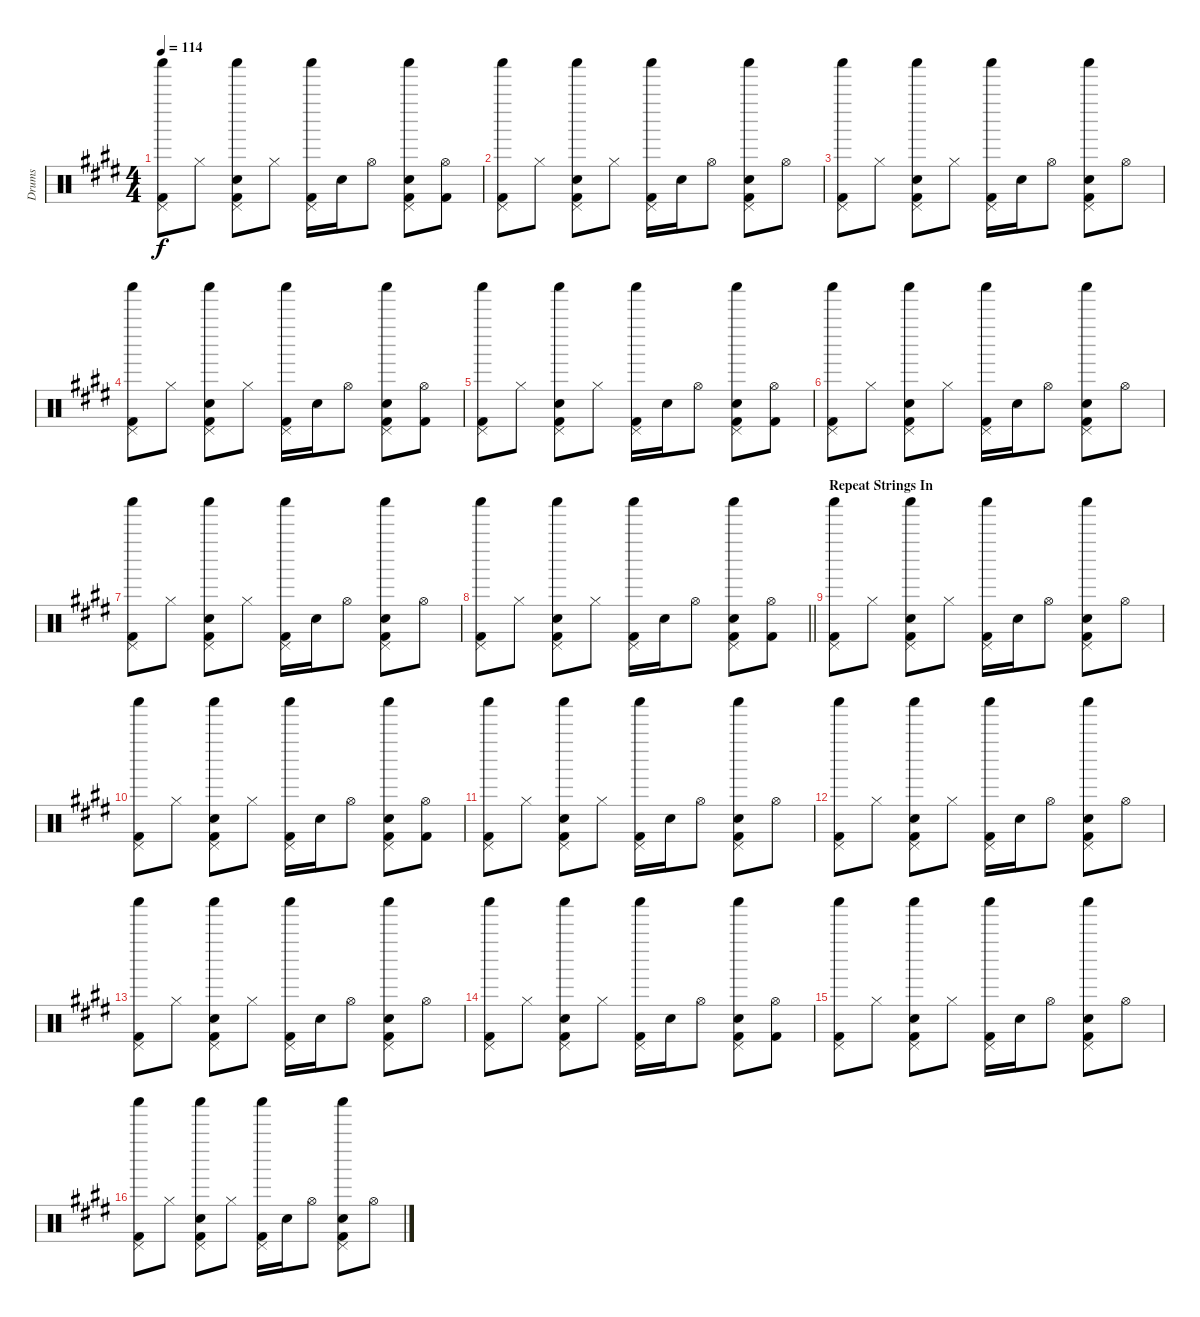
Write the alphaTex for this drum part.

\track ("Drums" "Drums") {instrument percussion}
\staff {score}
\articulation defaults
\ts (4 4)
\tempo 114
\clef neutral
\ks e
("Pedal Hi-Hat (hit)" "Shaker (hit)" "Kick (hit) 2").8{dy f} "Hi-Hat (closed)".8 ("Pedal Hi-Hat (hit)" "Shaker (hit)" "Electric Snare (hit)" "Kick (hit) 2").8 "Hi-Hat (closed)".8 ("Pedal Hi-Hat (hit)" "Shaker (hit)" "Kick (hit) 2").16 "Electric Snare (hit)".16 "Hi-Hat (open)".8 ("Pedal Hi-Hat (hit)" "Shaker (hit)" "Electric Snare (hit)" "Kick (hit) 2").8 ("Hi-Hat (open)" "Kick (hit) 2").8 |
("Pedal Hi-Hat (hit)" "Shaker (hit)" "Kick (hit) 2").8 "Hi-Hat (closed)".8 ("Pedal Hi-Hat (hit)" "Shaker (hit)" "Electric Snare (hit)" "Kick (hit) 2").8 "Hi-Hat (closed)".8 ("Pedal Hi-Hat (hit)" "Shaker (hit)" "Kick (hit) 2").16 "Electric Snare (hit)".16 "Hi-Hat (open)".8 ("Pedal Hi-Hat (hit)" "Shaker (hit)" "Electric Snare (hit)" "Kick (hit) 2").8 "Hi-Hat (open)".8 |
("Pedal Hi-Hat (hit)" "Shaker (hit)" "Kick (hit) 2").8 "Hi-Hat (closed)".8 ("Pedal Hi-Hat (hit)" "Shaker (hit)" "Electric Snare (hit)" "Kick (hit) 2").8 "Hi-Hat (closed)".8 ("Pedal Hi-Hat (hit)" "Shaker (hit)" "Kick (hit) 2").16 "Electric Snare (hit)".16 "Hi-Hat (open)".8 ("Pedal Hi-Hat (hit)" "Shaker (hit)" "Electric Snare (hit)" "Kick (hit) 2").8 "Hi-Hat (open)".8 |
("Pedal Hi-Hat (hit)" "Shaker (hit)" "Kick (hit) 2").8 "Hi-Hat (closed)".8 ("Pedal Hi-Hat (hit)" "Shaker (hit)" "Electric Snare (hit)" "Kick (hit) 2").8 "Hi-Hat (closed)".8 ("Pedal Hi-Hat (hit)" "Shaker (hit)" "Kick (hit) 2").16 "Electric Snare (hit)".16 "Hi-Hat (open)".8 ("Pedal Hi-Hat (hit)" "Shaker (hit)" "Electric Snare (hit)" "Kick (hit) 2").8 ("Hi-Hat (open)" "Kick (hit) 2").8 |
("Pedal Hi-Hat (hit)" "Shaker (hit)" "Kick (hit) 2").8 "Hi-Hat (closed)".8 ("Pedal Hi-Hat (hit)" "Shaker (hit)" "Electric Snare (hit)" "Kick (hit) 2").8 "Hi-Hat (closed)".8 ("Pedal Hi-Hat (hit)" "Shaker (hit)" "Kick (hit) 2").16 "Electric Snare (hit)".16 "Hi-Hat (open)".8 ("Pedal Hi-Hat (hit)" "Shaker (hit)" "Electric Snare (hit)" "Kick (hit) 2").8 ("Hi-Hat (open)" "Kick (hit) 2").8 |
("Pedal Hi-Hat (hit)" "Shaker (hit)" "Kick (hit) 2").8 "Hi-Hat (closed)".8 ("Pedal Hi-Hat (hit)" "Shaker (hit)" "Electric Snare (hit)" "Kick (hit) 2").8 "Hi-Hat (closed)".8 ("Pedal Hi-Hat (hit)" "Shaker (hit)" "Kick (hit) 2").16 "Electric Snare (hit)".16 "Hi-Hat (open)".8 ("Pedal Hi-Hat (hit)" "Shaker (hit)" "Electric Snare (hit)" "Kick (hit) 2").8 "Hi-Hat (open)".8 |
("Pedal Hi-Hat (hit)" "Shaker (hit)" "Kick (hit) 2").8 "Hi-Hat (closed)".8 ("Pedal Hi-Hat (hit)" "Shaker (hit)" "Electric Snare (hit)" "Kick (hit) 2").8 "Hi-Hat (closed)".8 ("Pedal Hi-Hat (hit)" "Shaker (hit)" "Kick (hit) 2").16 "Electric Snare (hit)".16 "Hi-Hat (open)".8 ("Pedal Hi-Hat (hit)" "Shaker (hit)" "Electric Snare (hit)" "Kick (hit) 2").8 "Hi-Hat (open)".8 |
\barLineRight lightlight
("Pedal Hi-Hat (hit)" "Shaker (hit)" "Kick (hit) 2").8 "Hi-Hat (closed)".8 ("Pedal Hi-Hat (hit)" "Shaker (hit)" "Electric Snare (hit)" "Kick (hit) 2").8 "Hi-Hat (closed)".8 ("Pedal Hi-Hat (hit)" "Shaker (hit)" "Kick (hit) 2").16 "Electric Snare (hit)".16 "Hi-Hat (open)".8 ("Pedal Hi-Hat (hit)" "Shaker (hit)" "Electric Snare (hit)" "Kick (hit) 2").8 ("Hi-Hat (open)" "Kick (hit) 2").8 |
\section ("" "Repeat Strings In")
("Pedal Hi-Hat (hit)" "Shaker (hit)" "Kick (hit) 2").8 "Hi-Hat (closed)".8 ("Pedal Hi-Hat (hit)" "Shaker (hit)" "Electric Snare (hit)" "Kick (hit) 2").8 "Hi-Hat (closed)".8 ("Pedal Hi-Hat (hit)" "Shaker (hit)" "Kick (hit) 2").16 "Electric Snare (hit)".16 "Hi-Hat (open)".8 ("Pedal Hi-Hat (hit)" "Shaker (hit)" "Electric Snare (hit)" "Kick (hit) 2").8 "Hi-Hat (open)".8 |
("Pedal Hi-Hat (hit)" "Shaker (hit)" "Kick (hit) 2").8 "Hi-Hat (closed)".8 ("Pedal Hi-Hat (hit)" "Shaker (hit)" "Electric Snare (hit)" "Kick (hit) 2").8 "Hi-Hat (closed)".8 ("Pedal Hi-Hat (hit)" "Shaker (hit)" "Kick (hit) 2").16 "Electric Snare (hit)".16 "Hi-Hat (open)".8 ("Pedal Hi-Hat (hit)" "Shaker (hit)" "Electric Snare (hit)" "Kick (hit) 2").8 ("Hi-Hat (open)" "Kick (hit) 2").8 |
("Pedal Hi-Hat (hit)" "Shaker (hit)" "Kick (hit) 2").8 "Hi-Hat (closed)".8 ("Pedal Hi-Hat (hit)" "Shaker (hit)" "Electric Snare (hit)" "Kick (hit) 2").8 "Hi-Hat (closed)".8 ("Pedal Hi-Hat (hit)" "Shaker (hit)" "Kick (hit) 2").16 "Electric Snare (hit)".16 "Hi-Hat (open)".8 ("Pedal Hi-Hat (hit)" "Shaker (hit)" "Electric Snare (hit)" "Kick (hit) 2").8 "Hi-Hat (open)".8 |
("Pedal Hi-Hat (hit)" "Shaker (hit)" "Kick (hit) 2").8 "Hi-Hat (closed)".8 ("Pedal Hi-Hat (hit)" "Shaker (hit)" "Electric Snare (hit)" "Kick (hit) 2").8 "Hi-Hat (closed)".8 ("Pedal Hi-Hat (hit)" "Shaker (hit)" "Kick (hit) 2").16 "Electric Snare (hit)".16 "Hi-Hat (open)".8 ("Pedal Hi-Hat (hit)" "Shaker (hit)" "Electric Snare (hit)" "Kick (hit) 2").8 "Hi-Hat (open)".8 |
("Pedal Hi-Hat (hit)" "Shaker (hit)" "Kick (hit) 2").8 "Hi-Hat (closed)".8 ("Pedal Hi-Hat (hit)" "Shaker (hit)" "Electric Snare (hit)" "Kick (hit) 2").8 "Hi-Hat (closed)".8 ("Pedal Hi-Hat (hit)" "Shaker (hit)" "Kick (hit) 2").16 "Electric Snare (hit)".16 "Hi-Hat (open)".8 ("Pedal Hi-Hat (hit)" "Shaker (hit)" "Electric Snare (hit)" "Kick (hit) 2").8 "Hi-Hat (open)".8 |
("Pedal Hi-Hat (hit)" "Shaker (hit)" "Kick (hit) 2").8 "Hi-Hat (closed)".8 ("Pedal Hi-Hat (hit)" "Shaker (hit)" "Electric Snare (hit)" "Kick (hit) 2").8 "Hi-Hat (closed)".8 ("Pedal Hi-Hat (hit)" "Shaker (hit)" "Kick (hit) 2").16 "Electric Snare (hit)".16 "Hi-Hat (open)".8 ("Pedal Hi-Hat (hit)" "Shaker (hit)" "Electric Snare (hit)" "Kick (hit) 2").8 ("Hi-Hat (open)" "Kick (hit) 2").8 |
("Pedal Hi-Hat (hit)" "Shaker (hit)" "Kick (hit) 2").8 "Hi-Hat (closed)".8 ("Pedal Hi-Hat (hit)" "Shaker (hit)" "Electric Snare (hit)" "Kick (hit) 2").8 "Hi-Hat (closed)".8 ("Pedal Hi-Hat (hit)" "Shaker (hit)" "Kick (hit) 2").16 "Electric Snare (hit)".16 "Hi-Hat (open)".8 ("Pedal Hi-Hat (hit)" "Shaker (hit)" "Electric Snare (hit)" "Kick (hit) 2").8 "Hi-Hat (open)".8 |
("Pedal Hi-Hat (hit)" "Shaker (hit)" "Kick (hit) 2").8 "Hi-Hat (closed)".8 ("Pedal Hi-Hat (hit)" "Shaker (hit)" "Electric Snare (hit)" "Kick (hit) 2").8 "Hi-Hat (closed)".8 ("Pedal Hi-Hat (hit)" "Shaker (hit)" "Kick (hit) 2").16 "Electric Snare (hit)".16 "Hi-Hat (open)".8 ("Pedal Hi-Hat (hit)" "Shaker (hit)" "Electric Snare (hit)" "Kick (hit) 2").8 "Hi-Hat (open)".8
